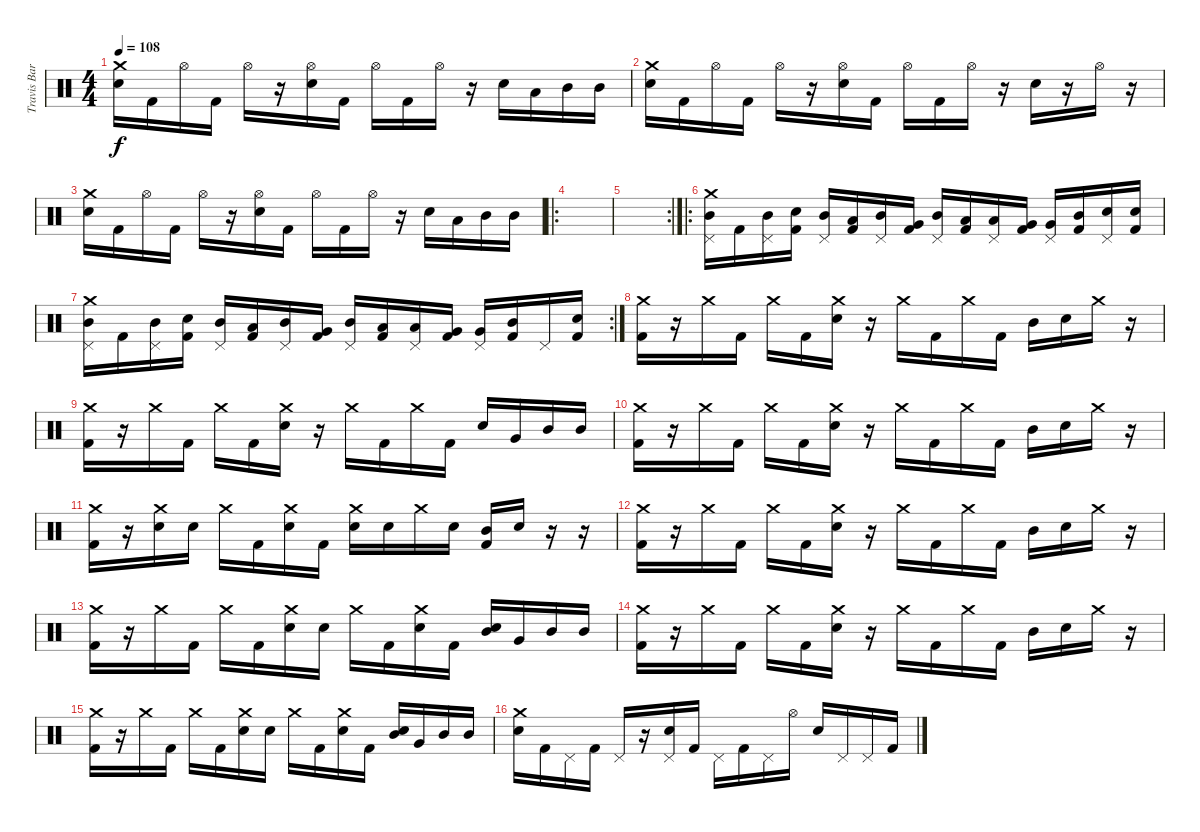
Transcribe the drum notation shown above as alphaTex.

\track ("Travis Barker" "Travis Bar") {instrument percussion}
\staff {score}
\articulation defaults
\ts (4 4)
\tempo 108
\clef neutral
\ks c
("Crash medium (hit)" "Electric Snare (hit)").16{dy f} "Kick (hit) 2".16 "Hi-Hat (open)".16 "Kick (hit) 2".16 "Hi-Hat (open)".16 r.16 ("Hi-Hat (open)" "Electric Snare (hit)").16 "Kick (hit) 2".16 "Hi-Hat (open)".16 "Kick (hit) 2".16 "Hi-Hat (open)".16 r.16 "Electric Snare (hit)".16 "Low Floor Tom (hit)".16 "Mid Tom (hit)".16 "Mid Tom (hit)".16 |
("Crash medium (hit)" "Electric Snare (hit)").16 "Kick (hit) 2".16 "Hi-Hat (open)".16 "Kick (hit) 2".16 "Hi-Hat (open)".16 r.16 ("Hi-Hat (open)" "Electric Snare (hit)").16 "Kick (hit) 2".16 "Hi-Hat (open)".16 "Kick (hit) 2".16 "Hi-Hat (open)".16 r.16 "Snare (hit) 2".16 r.16 "Hi-Hat (open)".16 r.16 |
("Crash medium (hit)" "Electric Snare (hit)").16 "Kick (hit) 2".16 "Hi-Hat (open)".16 "Kick (hit) 2".16 "Hi-Hat (open)".16 r.16 ("Hi-Hat (open)" "Electric Snare (hit)").16 "Kick (hit) 2".16 "Hi-Hat (open)".16 "Kick (hit) 2".16 "Hi-Hat (open)".16 r.16 "Electric Snare (hit)".16 "Low Floor Tom (hit)".16 "Mid Tom (hit)".16 "Mid Tom (hit)".16 |
\ro
|
\rc 2
|
\ro
("Crash medium (hit)" "Pedal Hi-Hat (hit)" "Mid Tom (hit)").16 "Kick (hit) 2".16 ("Pedal Hi-Hat (hit)" "Mid Tom (hit)").16 ("Kick (hit) 2" "Snare (hit) 2").16 ("Pedal Hi-Hat (hit)" "Mid Tom (hit)").16 ("Low Floor Tom (hit)" "Kick (hit) 2").16 ("Pedal Hi-Hat (hit)" "Mid Tom (hit)").16 ("Very Low Tom (hit)" "Kick (hit) 2").16 ("Pedal Hi-Hat (hit)" "Mid Tom (hit)").16 ("Low Floor Tom (hit)" "Kick (hit) 2").16 ("Low Floor Tom (hit)" "Pedal Hi-Hat (hit)").16 ("Very Low Tom (hit)" "Kick (hit) 2").16 ("Very Low Tom (hit)" "Pedal Hi-Hat (hit)").16 ("Kick (hit) 2" "Mid Tom (hit)").16 ("Pedal Hi-Hat (hit)" "Snare (hit) 2").16 ("Kick (hit) 2" "Snare (hit) 2").16 |
\rc 2
("Crash medium (hit)" "Pedal Hi-Hat (hit)" "Mid Tom (hit)").16 "Kick (hit) 2".16 ("Pedal Hi-Hat (hit)" "Mid Tom (hit)").16 ("Kick (hit) 2" "Snare (hit) 2").16 ("Pedal Hi-Hat (hit)" "Mid Tom (hit)").16 ("Low Floor Tom (hit)" "Kick (hit) 2").16 ("Pedal Hi-Hat (hit)" "Mid Tom (hit)").16 ("Very Low Tom (hit)" "Kick (hit) 2").16 ("Pedal Hi-Hat (hit)" "Mid Tom (hit)").16 ("Low Floor Tom (hit)" "Kick (hit) 2").16 ("Low Floor Tom (hit)" "Pedal Hi-Hat (hit)").16 ("Very Low Tom (hit)" "Kick (hit) 2").16 ("Very Low Tom (hit)" "Pedal Hi-Hat (hit)").16 ("Kick (hit) 2" "Mid Tom (hit)").16 "Pedal Hi-Hat (hit)".16 ("Kick (hit) 2" "Snare (hit) 2").16 |
("Crash medium (hit)" "Kick (hit) 2").16 r.16 "Crash medium (hit)".16 "Kick (hit) 2".16 "Crash medium (hit)".16 "Kick (hit) 2".16 ("Crash medium (hit)" "Snare (hit) 2").16 r.16 "Crash medium (hit)".16 "Kick (hit) 2".16 "Crash medium (hit)".16 "Kick (hit) 2".16 "Mid Tom (hit)".16 "Snare (hit) 2".16 "Crash medium (hit)".16 r.16 |
("Crash medium (hit)" "Kick (hit) 2").16 r.16 "Crash medium (hit)".16 "Kick (hit) 2".16 "Crash medium (hit)".16 "Kick (hit) 2".16 ("Crash medium (hit)" "Snare (hit) 2").16 r.16 "Crash medium (hit)".16 "Kick (hit) 2".16 "Crash medium (hit)".16 "Kick (hit) 2".16 "Snare (hit) 2".16 "Very Low Tom (hit)".16 "Mid Tom (hit)".16 "Mid Tom (hit)".16 |
("Crash medium (hit)" "Kick (hit) 2").16 r.16 "Crash medium (hit)".16 "Kick (hit) 2".16 "Crash medium (hit)".16 "Kick (hit) 2".16 ("Crash medium (hit)" "Snare (hit) 2").16 r.16 "Crash medium (hit)".16 "Kick (hit) 2".16 "Crash medium (hit)".16 "Kick (hit) 2".16 "Mid Tom (hit)".16 "Snare (hit) 2".16 "Crash medium (hit)".16 r.16 |
("Crash medium (hit)" "Kick (hit) 2").16 r.16 ("Crash medium (hit)" "Snare (hit) 2").16 "Snare (hit) 2".16 "Crash medium (hit)".16 "Kick (hit) 2".16 ("Crash medium (hit)" "Snare (hit) 2").16 "Kick (hit) 2".16 ("Crash medium (hit)" "Snare (hit) 2").16 "Snare (hit) 2".16 "Crash medium (hit)".16 "Snare (hit) 2".16 ("Mid Tom (hit)" "Kick (hit) 2").16 "Snare (hit) 2".16 r.16 r.16 |
("Crash medium (hit)" "Kick (hit) 2").16 r.16 "Crash medium (hit)".16 "Kick (hit) 2".16 "Crash medium (hit)".16 "Kick (hit) 2".16 ("Crash medium (hit)" "Snare (hit) 2").16 r.16 "Crash medium (hit)".16 "Kick (hit) 2".16 "Crash medium (hit)".16 "Kick (hit) 2".16 "Mid Tom (hit)".16 "Snare (hit) 2".16 "Crash medium (hit)".16 r.16 |
("Crash medium (hit)" "Kick (hit) 2").16 r.16 "Crash medium (hit)".16 "Kick (hit) 2".16 "Crash medium (hit)".16 "Kick (hit) 2".16 ("Crash medium (hit)" "Snare (hit) 2").16 "Snare (hit) 2".16 "Crash medium (hit)".16 "Kick (hit) 2".16 ("Crash medium (hit)" "Snare (hit) 2").16 "Kick (hit) 2".16 ("Snare (hit) 2" "Mid Tom (hit)").16 "Very Low Tom (hit)".16 "Mid Tom (hit)".16 "Mid Tom (hit)".16 |
("Crash medium (hit)" "Kick (hit) 2").16 r.16 "Crash medium (hit)".16 "Kick (hit) 2".16 "Crash medium (hit)".16 "Kick (hit) 2".16 ("Crash medium (hit)" "Snare (hit) 2").16 r.16 "Crash medium (hit)".16 "Kick (hit) 2".16 "Crash medium (hit)".16 "Kick (hit) 2".16 "Mid Tom (hit)".16 "Snare (hit) 2".16 "Crash medium (hit)".16 r.16 |
("Crash medium (hit)" "Kick (hit) 2").16 r.16 "Crash medium (hit)".16 "Kick (hit) 2".16 "Crash medium (hit)".16 "Kick (hit) 2".16 ("Crash medium (hit)" "Snare (hit) 2").16 "Snare (hit) 2".16 "Crash medium (hit)".16 "Kick (hit) 2".16 ("Crash medium (hit)" "Snare (hit) 2").16 "Kick (hit) 2".16 ("Snare (hit) 2" "Mid Tom (hit)").16 "Very Low Tom (hit)".16 "Mid Tom (hit)".16 "Mid Tom (hit)".16 |
("Crash medium (hit)" "Snare (hit) 2").16 "Kick (hit) 2".16 "Pedal Hi-Hat (hit)".16 "Kick (hit) 2".16 "Pedal Hi-Hat (hit)".16 r.16 ("Pedal Hi-Hat (hit)" "Snare (hit) 2").16 "Kick (hit) 2".16 "Pedal Hi-Hat (hit)".16 "Kick (hit) 2".16 "Pedal Hi-Hat (hit)".16 "Hi-Hat (open)".16 "Snare (hit) 2".16 "Pedal Hi-Hat (hit)".16 "Pedal Hi-Hat (hit)".16 "Kick (hit) 2".16
